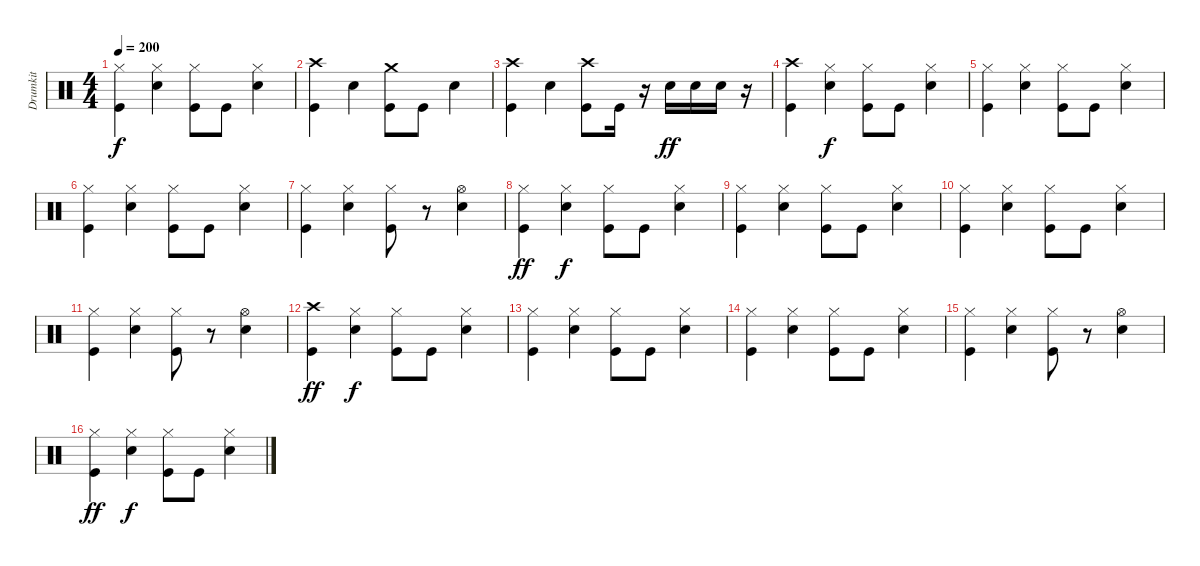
\track ("Drumkit" "Drumkit") {instrument percussion}
\staff {score}
\articulation defaults
\ts (4 4)
\tempo 200
\clef neutral
\ks c
("Hi-Hat (closed)" "Kick (hit)").4{dy f} ("Hi-Hat (closed)" "Snare (hit) 2").4 ("Hi-Hat (closed)" "Kick (hit)").8 "Kick (hit)".8 ("Hi-Hat (closed)" "Snare (hit) 2").4 |
("Crash high (hit)" "Kick (hit)").4 "Snare (hit) 2".4 ("Crash medium (hit)" "Kick (hit)").8 "Kick (hit)".8 "Snare (hit) 2".4 |
("Crash high (hit)" "Kick (hit)").4 "Snare (hit) 2".4 ("Crash high (hit)" "Kick (hit)").8 "Kick (hit)".16 r.16 "Snare (hit) 2".16{dy ff} "Snare (hit) 2".16 "Snare (hit) 2".16 r.16 |
("Crash high (hit)" "Kick (hit)").4 ("Hi-Hat (closed)" "Snare (hit) 2").4{dy f} ("Hi-Hat (closed)" "Kick (hit)").8 "Kick (hit)".8 ("Hi-Hat (closed)" "Snare (hit) 2").4 |
("Hi-Hat (closed)" "Kick (hit)").4 ("Hi-Hat (closed)" "Snare (hit) 2").4 ("Hi-Hat (closed)" "Kick (hit)").8 "Kick (hit)".8 ("Hi-Hat (closed)" "Snare (hit) 2").4 |
("Hi-Hat (closed)" "Kick (hit)").4 ("Hi-Hat (closed)" "Snare (hit) 2").4 ("Hi-Hat (closed)" "Kick (hit)").8 "Kick (hit)".8 ("Hi-Hat (closed)" "Snare (hit) 2").4 |
("Hi-Hat (closed)" "Kick (hit)").4 ("Hi-Hat (closed)" "Snare (hit) 2").4 ("Hi-Hat (closed)" "Kick (hit)").8 r.8 ("Hi-Hat (open)" "Snare (hit) 2").4 |
("Hi-Hat (closed)" "Kick (hit)").4{dy ff} ("Hi-Hat (closed)" "Snare (hit) 2").4{dy f} ("Hi-Hat (closed)" "Kick (hit)").8 "Kick (hit)".8 ("Hi-Hat (closed)" "Snare (hit) 2").4 |
("Hi-Hat (closed)" "Kick (hit)").4 ("Hi-Hat (closed)" "Snare (hit) 2").4 ("Hi-Hat (closed)" "Kick (hit)").8 "Kick (hit)".8 ("Hi-Hat (closed)" "Snare (hit) 2").4 |
("Hi-Hat (closed)" "Kick (hit)").4 ("Hi-Hat (closed)" "Snare (hit) 2").4 ("Hi-Hat (closed)" "Kick (hit)").8 "Kick (hit)".8 ("Hi-Hat (closed)" "Snare (hit) 2").4 |
("Hi-Hat (closed)" "Kick (hit)").4 ("Hi-Hat (closed)" "Snare (hit) 2").4 ("Hi-Hat (closed)" "Kick (hit)").8 r.8 ("Hi-Hat (open)" "Snare (hit) 2").4 |
("Crash high (hit)" "Kick (hit)").4{dy ff} ("Hi-Hat (closed)" "Snare (hit) 2").4{dy f} ("Hi-Hat (closed)" "Kick (hit)").8 "Kick (hit)".8 ("Hi-Hat (closed)" "Snare (hit) 2").4 |
("Hi-Hat (closed)" "Kick (hit)").4 ("Hi-Hat (closed)" "Snare (hit) 2").4 ("Hi-Hat (closed)" "Kick (hit)").8 "Kick (hit)".8 ("Hi-Hat (closed)" "Snare (hit) 2").4 |
("Hi-Hat (closed)" "Kick (hit)").4 ("Hi-Hat (closed)" "Snare (hit) 2").4 ("Hi-Hat (closed)" "Kick (hit)").8 "Kick (hit)".8 ("Hi-Hat (closed)" "Snare (hit) 2").4 |
("Hi-Hat (closed)" "Kick (hit)").4 ("Hi-Hat (closed)" "Snare (hit) 2").4 ("Hi-Hat (closed)" "Kick (hit)").8 r.8 ("Hi-Hat (open)" "Snare (hit) 2").4 |
("Hi-Hat (closed)" "Kick (hit)").4{dy ff} ("Hi-Hat (closed)" "Snare (hit) 2").4{dy f} ("Hi-Hat (closed)" "Kick (hit)").8 "Kick (hit)".8 ("Hi-Hat (closed)" "Snare (hit) 2").4
